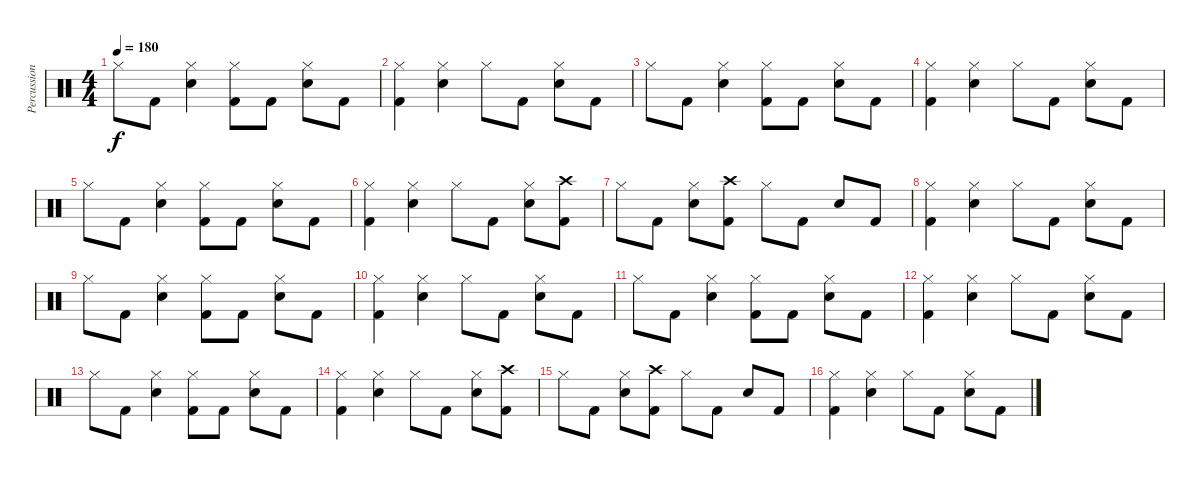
\track ("Percussion" "Percussion") {instrument percussion}
\staff {score}
\articulation defaults
\ts (4 4)
\tempo 180
\clef neutral
\ks c "Hi-Hat (closed)".8{dy f} "Kick (hit) 2".8
("Hi-Hat (closed)" "Snare (hit) 2").4 ("Hi-Hat (closed)" "Kick (hit) 2").8 "Kick (hit) 2".8 ("Hi-Hat (closed)" "Snare (hit) 2").8 "Kick (hit) 2".8 |
("Hi-Hat (closed)" "Kick (hit) 2").4 ("Hi-Hat (closed)" "Snare (hit) 2").4 "Hi-Hat (closed)".8 "Kick (hit) 2".8 ("Hi-Hat (closed)" "Snare (hit) 2").8 "Kick (hit) 2".8 |
"Hi-Hat (closed)".8 "Kick (hit) 2".8 ("Hi-Hat (closed)" "Snare (hit) 2").4 ("Hi-Hat (closed)" "Kick (hit) 2").8 "Kick (hit) 2".8 ("Hi-Hat (closed)" "Snare (hit) 2").8 "Kick (hit) 2".8 |
("Hi-Hat (closed)" "Kick (hit) 2").4 ("Hi-Hat (closed)" "Snare (hit) 2").4 "Hi-Hat (closed)".8 "Kick (hit) 2".8 ("Hi-Hat (closed)" "Snare (hit) 2").8 "Kick (hit) 2".8 |
"Hi-Hat (closed)".8 "Kick (hit) 2".8 ("Hi-Hat (closed)" "Snare (hit) 2").4 ("Hi-Hat (closed)" "Kick (hit) 2").8 "Kick (hit) 2".8 ("Hi-Hat (closed)" "Snare (hit) 2").8 "Kick (hit) 2".8 |
("Hi-Hat (closed)" "Kick (hit) 2").4 ("Hi-Hat (closed)" "Snare (hit) 2").4 "Hi-Hat (closed)".8 "Kick (hit) 2".8 ("Hi-Hat (closed)" "Snare (hit) 2").8 ("Crash high (hit)" "Kick (hit) 2").8 |
"Hi-Hat (closed)".8 "Kick (hit) 2".8 ("Hi-Hat (closed)" "Snare (hit) 2").8 ("Crash high (hit)" "Kick (hit) 2").8 "Hi-Hat (closed)".8 "Kick (hit) 2".8 "Snare (hit) 2".8 "Kick (hit) 2".8 |
("Hi-Hat (closed)" "Kick (hit) 2").4 ("Hi-Hat (closed)" "Snare (hit) 2").4 "Hi-Hat (closed)".8 "Kick (hit) 2".8 ("Hi-Hat (closed)" "Snare (hit) 2").8 "Kick (hit) 2".8 |
"Hi-Hat (closed)".8 "Kick (hit) 2".8 ("Hi-Hat (closed)" "Snare (hit) 2").4 ("Hi-Hat (closed)" "Kick (hit) 2").8 "Kick (hit) 2".8 ("Hi-Hat (closed)" "Snare (hit) 2").8 "Kick (hit) 2".8 |
("Hi-Hat (closed)" "Kick (hit) 2").4 ("Hi-Hat (closed)" "Snare (hit) 2").4 "Hi-Hat (closed)".8 "Kick (hit) 2".8 ("Hi-Hat (closed)" "Snare (hit) 2").8 "Kick (hit) 2".8 |
"Hi-Hat (closed)".8 "Kick (hit) 2".8 ("Hi-Hat (closed)" "Snare (hit) 2").4 ("Hi-Hat (closed)" "Kick (hit) 2").8 "Kick (hit) 2".8 ("Hi-Hat (closed)" "Snare (hit) 2").8 "Kick (hit) 2".8 |
("Hi-Hat (closed)" "Kick (hit) 2").4 ("Hi-Hat (closed)" "Snare (hit) 2").4 "Hi-Hat (closed)".8 "Kick (hit) 2".8 ("Hi-Hat (closed)" "Snare (hit) 2").8 "Kick (hit) 2".8 |
"Hi-Hat (closed)".8 "Kick (hit) 2".8 ("Hi-Hat (closed)" "Snare (hit) 2").4 ("Hi-Hat (closed)" "Kick (hit) 2").8 "Kick (hit) 2".8 ("Hi-Hat (closed)" "Snare (hit) 2").8 "Kick (hit) 2".8 |
("Hi-Hat (closed)" "Kick (hit) 2").4 ("Hi-Hat (closed)" "Snare (hit) 2").4 "Hi-Hat (closed)".8 "Kick (hit) 2".8 ("Hi-Hat (closed)" "Snare (hit) 2").8 ("Crash high (hit)" "Kick (hit) 2").8 |
"Hi-Hat (closed)".8 "Kick (hit) 2".8 ("Hi-Hat (closed)" "Snare (hit) 2").8 ("Crash high (hit)" "Kick (hit) 2").8 "Hi-Hat (closed)".8 "Kick (hit) 2".8 "Snare (hit) 2".8 "Kick (hit) 2".8 |
("Hi-Hat (closed)" "Kick (hit) 2").4 ("Hi-Hat (closed)" "Snare (hit) 2").4 "Hi-Hat (closed)".8 "Kick (hit) 2".8 ("Hi-Hat (closed)" "Snare (hit) 2").8 "Kick (hit) 2".8
